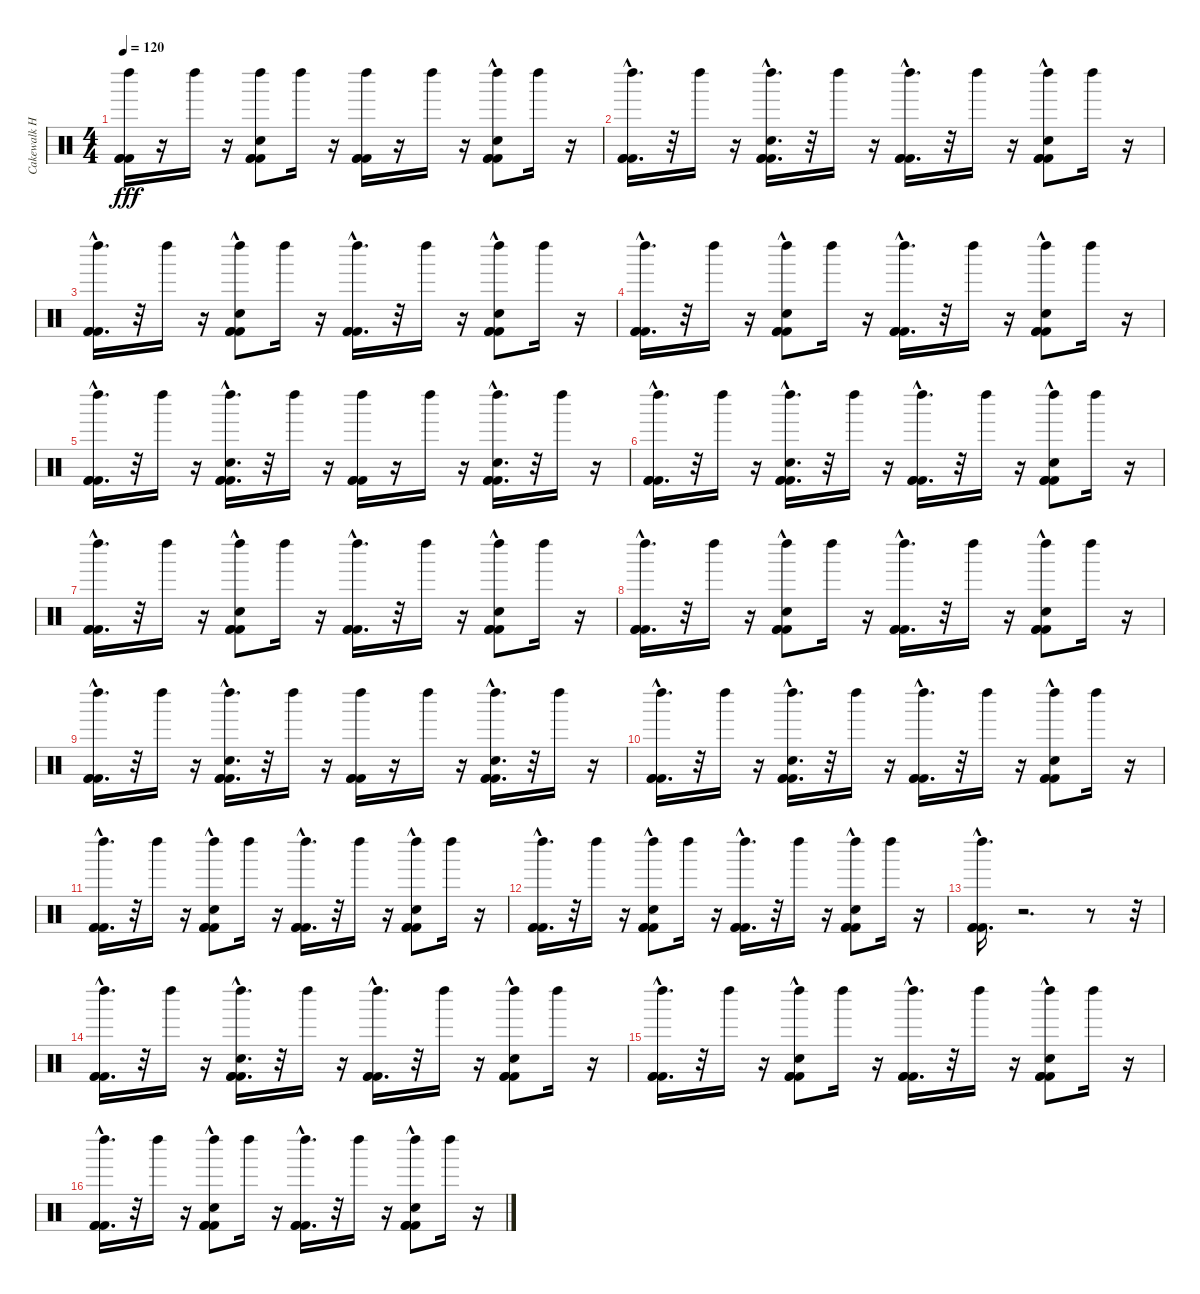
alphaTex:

\track ("Cakewalk Home Studio 5.0" "Cakewalk H") {instrument percussion}
\staff {score}
\articulation defaults
\ts (4 4)
\tempo 120
\clef neutral
\ks c
("Left Maraca (hit)" "Kick (hit) 2" "Kick (hit) 2" "Kick (hit) 2").16{dy fff} r.16 "Left Maraca (hit)".16 r.16 ("Left Maraca (hit)" "Hand Clap (hit)" "Kick (hit) 2" "Kick (hit) 2" "Kick (hit) 2").8 "Left Maraca (hit)".16 r.16 ("Left Maraca (hit)" "Kick (hit) 2" "Kick (hit) 2" "Kick (hit) 2").16 r.16 "Left Maraca (hit)".16 r.16 ("Left Maraca (hit)" "Hand Clap (hit)" "Kick (hit) 2"{hac} "Kick (hit) 2"{hac} "Kick (hit) 2"{hac}).8 "Left Maraca (hit)".16 r.16 |
("Left Maraca (hit)" "Kick (hit) 2"{hac} "Kick (hit) 2"{hac} "Kick (hit) 2"{hac}).16{d} r.32 "Left Maraca (hit)".16 r.16 ("Left Maraca (hit)" "Hand Clap (hit)"{hac} "Kick (hit) 2"{hac} "Kick (hit) 2"{hac} "Kick (hit) 2"{hac}).16{d} r.32 "Left Maraca (hit)".16 r.16 ("Left Maraca (hit)" "Kick (hit) 2"{hac} "Kick (hit) 2"{hac} "Kick (hit) 2"{hac}).16{d} r.32 "Left Maraca (hit)".16 r.16 ("Left Maraca (hit)" "Hand Clap (hit)" "Kick (hit) 2"{hac} "Kick (hit) 2"{hac} "Kick (hit) 2"{hac}).8 "Left Maraca (hit)".16 r.16 |
("Left Maraca (hit)" "Kick (hit) 2"{hac} "Kick (hit) 2"{hac} "Kick (hit) 2"{hac}).16{d} r.32 "Left Maraca (hit)".16 r.16 ("Left Maraca (hit)" "Hand Clap (hit)" "Kick (hit) 2"{hac} "Kick (hit) 2"{hac} "Kick (hit) 2"{hac}).8 "Left Maraca (hit)".16 r.16 ("Left Maraca (hit)" "Kick (hit) 2"{hac} "Kick (hit) 2"{hac} "Kick (hit) 2"{hac}).16{d} r.32 "Left Maraca (hit)".16 r.16 ("Left Maraca (hit)" "Hand Clap (hit)" "Kick (hit) 2"{hac} "Kick (hit) 2"{hac} "Kick (hit) 2"{hac}).8 "Left Maraca (hit)".16 r.16 |
("Left Maraca (hit)" "Kick (hit) 2"{hac} "Kick (hit) 2"{hac} "Kick (hit) 2"{hac}).16{d} r.32 "Left Maraca (hit)".16 r.16 ("Left Maraca (hit)" "Hand Clap (hit)" "Kick (hit) 2"{hac} "Kick (hit) 2"{hac} "Kick (hit) 2"{hac}).8 "Left Maraca (hit)".16 r.16 ("Left Maraca (hit)" "Kick (hit) 2"{hac} "Kick (hit) 2"{hac} "Kick (hit) 2"{hac}).16{d} r.32 "Left Maraca (hit)".16 r.16 ("Left Maraca (hit)" "Hand Clap (hit)" "Kick (hit) 2"{hac} "Kick (hit) 2"{hac} "Kick (hit) 2"{hac}).8 "Left Maraca (hit)".16 r.16 |
("Left Maraca (hit)" "Kick (hit) 2"{hac} "Kick (hit) 2"{hac} "Kick (hit) 2"{hac}).16{d} r.32 "Left Maraca (hit)".16 r.16 ("Left Maraca (hit)" "Hand Clap (hit)"{hac} "Kick (hit) 2"{hac} "Kick (hit) 2"{hac} "Kick (hit) 2"{hac}).16{d} r.32 "Left Maraca (hit)".16 r.16 ("Left Maraca (hit)" "Kick (hit) 2" "Kick (hit) 2" "Kick (hit) 2").16 r.16 "Left Maraca (hit)".16 r.16 ("Left Maraca (hit)" "Hand Clap (hit)"{hac} "Kick (hit) 2"{hac} "Kick (hit) 2"{hac} "Kick (hit) 2"{hac}).16{d} r.32 "Left Maraca (hit)".16 r.16 |
("Kick (hit) 2"{hac} "Left Maraca (hit)" "Kick (hit) 2"{hac} "Kick (hit) 2"{hac}).16{d} r.32 "Left Maraca (hit)".16 r.16 ("Kick (hit) 2"{hac} "Left Maraca (hit)" "Hand Clap (hit)"{hac} "Kick (hit) 2"{hac} "Kick (hit) 2"{hac}).16{d} r.32 "Left Maraca (hit)".16 r.16 ("Kick (hit) 2"{hac} "Left Maraca (hit)" "Kick (hit) 2"{hac} "Kick (hit) 2"{hac}).16{d} r.32 "Left Maraca (hit)".16 r.16 ("Kick (hit) 2"{hac} "Left Maraca (hit)" "Hand Clap (hit)" "Kick (hit) 2"{hac} "Kick (hit) 2"{hac}).8 "Left Maraca (hit)".16 r.16 |
("Left Maraca (hit)" "Kick (hit) 2"{hac} "Kick (hit) 2"{hac} "Kick (hit) 2"{hac}).16{d} r.32 "Left Maraca (hit)".16 r.16 ("Kick (hit) 2"{hac} "Left Maraca (hit)" "Hand Clap (hit)" "Kick (hit) 2"{hac} "Kick (hit) 2"{hac}).8 "Left Maraca (hit)".16 r.16 ("Kick (hit) 2"{hac} "Left Maraca (hit)" "Kick (hit) 2"{hac} "Kick (hit) 2"{hac}).16{d} r.32 "Left Maraca (hit)".16 r.16 ("Hand Clap (hit)" "Kick (hit) 2"{hac} "Left Maraca (hit)" "Kick (hit) 2"{hac} "Kick (hit) 2"{hac}).8 "Left Maraca (hit)".16 r.16 |
("Kick (hit) 2"{hac} "Left Maraca (hit)" "Kick (hit) 2"{hac} "Kick (hit) 2"{hac}).16{d} r.32 "Left Maraca (hit)".16 r.16 ("Kick (hit) 2"{hac} "Hand Clap (hit)" "Left Maraca (hit)" "Kick (hit) 2"{hac} "Kick (hit) 2"{hac}).8 "Left Maraca (hit)".16 r.16 ("Kick (hit) 2"{hac} "Left Maraca (hit)" "Kick (hit) 2"{hac} "Kick (hit) 2"{hac}).16{d} r.32 "Left Maraca (hit)".16 r.16 ("Kick (hit) 2"{hac} "Hand Clap (hit)" "Left Maraca (hit)" "Kick (hit) 2"{hac} "Kick (hit) 2"{hac}).8 "Left Maraca (hit)".16 r.16 |
("Kick (hit) 2"{hac} "Left Maraca (hit)" "Kick (hit) 2"{hac} "Kick (hit) 2"{hac}).16{d} r.32 "Left Maraca (hit)".16 r.16 ("Left Maraca (hit)" "Kick (hit) 2"{hac} "Hand Clap (hit)"{hac} "Kick (hit) 2"{hac} "Kick (hit) 2"{hac}).16{d} r.32 "Left Maraca (hit)".16 r.16 ("Left Maraca (hit)" "Kick (hit) 2" "Kick (hit) 2" "Kick (hit) 2").16 r.16 "Left Maraca (hit)".16 r.16 ("Hand Clap (hit)"{hac} "Left Maraca (hit)" "Kick (hit) 2"{hac} "Kick (hit) 2"{hac} "Kick (hit) 2"{hac}).16{d} r.32 "Left Maraca (hit)".16 r.16 |
("Kick (hit) 2"{hac} "Left Maraca (hit)" "Kick (hit) 2"{hac} "Kick (hit) 2"{hac}).16{d} r.32 "Left Maraca (hit)".16 r.16 ("Kick (hit) 2"{hac} "Left Maraca (hit)" "Hand Clap (hit)"{hac} "Kick (hit) 2"{hac} "Kick (hit) 2"{hac}).16{d} r.32 "Left Maraca (hit)".16 r.16 ("Kick (hit) 2"{hac} "Left Maraca (hit)" "Kick (hit) 2"{hac} "Kick (hit) 2"{hac}).16{d} r.32 "Left Maraca (hit)".16 r.16 ("Kick (hit) 2"{hac} "Left Maraca (hit)" "Hand Clap (hit)" "Kick (hit) 2"{hac} "Kick (hit) 2"{hac}).8 "Left Maraca (hit)".16 r.16 |
("Left Maraca (hit)" "Kick (hit) 2"{hac} "Kick (hit) 2"{hac} "Kick (hit) 2"{hac}).16{d} r.32 "Left Maraca (hit)".16 r.16 ("Kick (hit) 2"{hac} "Left Maraca (hit)" "Hand Clap (hit)" "Kick (hit) 2"{hac} "Kick (hit) 2"{hac}).8 "Left Maraca (hit)".16 r.16 ("Kick (hit) 2"{hac} "Left Maraca (hit)" "Kick (hit) 2"{hac} "Kick (hit) 2"{hac}).16{d} r.32 "Left Maraca (hit)".16 r.16 ("Hand Clap (hit)" "Kick (hit) 2"{hac} "Left Maraca (hit)" "Kick (hit) 2"{hac} "Kick (hit) 2"{hac}).8 "Left Maraca (hit)".16 r.16 |
("Kick (hit) 2"{hac} "Left Maraca (hit)" "Kick (hit) 2"{hac} "Kick (hit) 2"{hac}).16{d} r.32 "Left Maraca (hit)".16 r.16 ("Kick (hit) 2"{hac} "Hand Clap (hit)" "Left Maraca (hit)" "Kick (hit) 2"{hac} "Kick (hit) 2"{hac}).8 "Left Maraca (hit)".16 r.16 ("Kick (hit) 2"{hac} "Left Maraca (hit)" "Kick (hit) 2"{hac} "Kick (hit) 2"{hac}).16{d} r.32 "Left Maraca (hit)".16 r.16 ("Kick (hit) 2"{hac} "Hand Clap (hit)" "Left Maraca (hit)" "Kick (hit) 2"{hac} "Kick (hit) 2"{hac}).8 "Left Maraca (hit)".16 r.16 |
("Kick (hit) 2"{hac} "Left Maraca (hit)" "Kick (hit) 2"{hac} "Kick (hit) 2"{hac}).16{d} r.2{d} r.8 r.32 |
("Kick (hit) 2"{hac} "Left Maraca (hit)" "Kick (hit) 2"{hac} "Kick (hit) 2"{hac}).16{d} r.32 "Left Maraca (hit)".16 r.16 ("Kick (hit) 2"{hac} "Left Maraca (hit)" "Hand Clap (hit)"{hac} "Kick (hit) 2"{hac} "Kick (hit) 2"{hac}).16{d} r.32 "Left Maraca (hit)".16 r.16 ("Kick (hit) 2"{hac} "Left Maraca (hit)" "Kick (hit) 2"{hac} "Kick (hit) 2"{hac}).16{d} r.32 "Left Maraca (hit)".16 r.16 ("Kick (hit) 2"{hac} "Left Maraca (hit)" "Hand Clap (hit)" "Kick (hit) 2"{hac} "Kick (hit) 2"{hac}).8 "Left Maraca (hit)".16 r.16 |
("Left Maraca (hit)" "Kick (hit) 2"{hac} "Kick (hit) 2"{hac} "Kick (hit) 2"{hac}).16{d} r.32 "Left Maraca (hit)".16 r.16 ("Kick (hit) 2"{hac} "Left Maraca (hit)" "Hand Clap (hit)" "Kick (hit) 2"{hac} "Kick (hit) 2"{hac}).8 "Left Maraca (hit)".16 r.16 ("Kick (hit) 2"{hac} "Left Maraca (hit)" "Kick (hit) 2"{hac} "Kick (hit) 2"{hac}).16{d} r.32 "Left Maraca (hit)".16 r.16 ("Hand Clap (hit)" "Kick (hit) 2"{hac} "Left Maraca (hit)" "Kick (hit) 2"{hac} "Kick (hit) 2"{hac}).8 "Left Maraca (hit)".16 r.16 |
("Kick (hit) 2"{hac} "Left Maraca (hit)" "Kick (hit) 2"{hac} "Kick (hit) 2"{hac}).16{d} r.32 "Left Maraca (hit)".16 r.16 ("Kick (hit) 2"{hac} "Hand Clap (hit)" "Left Maraca (hit)" "Kick (hit) 2"{hac} "Kick (hit) 2"{hac}).8 "Left Maraca (hit)".16 r.16 ("Kick (hit) 2"{hac} "Left Maraca (hit)" "Kick (hit) 2"{hac} "Kick (hit) 2"{hac}).16{d} r.32 "Left Maraca (hit)".16 r.16 ("Kick (hit) 2"{hac} "Hand Clap (hit)" "Left Maraca (hit)" "Kick (hit) 2"{hac} "Kick (hit) 2"{hac}).8 "Left Maraca (hit)".16 r.16
